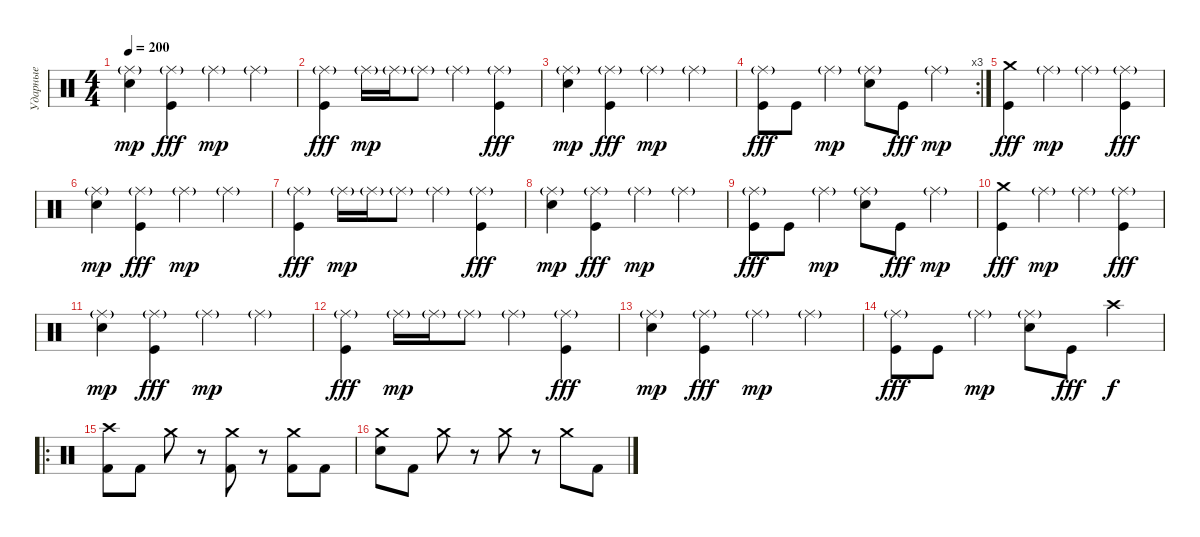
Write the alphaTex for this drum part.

\track ("Ударные" "Ударные") {instrument percussion}
\staff {score}
\articulation defaults
\ts (4 4)
\tempo 200
\clef neutral
\ks c
("Ride (middle)"{g} "Electric Snare (hit)").4{dy mp} ("Ride (middle)"{g} "Kick (hit)").4{dy fff} "Ride (middle)"{g}.4{dy mp} "Ride (middle)"{g}.4 |
("Ride (middle)"{g} "Kick (hit)").4{dy fff} "Ride (middle)"{g}.16{dy mp} "Ride (middle)"{g}.16 "Ride (middle)"{g}.8 "Ride (middle)"{g}.4 ("Ride (middle)"{g} "Kick (hit)").4{dy fff} |
("Ride (middle)"{g} "Electric Snare (hit)").4{dy mp} ("Ride (middle)"{g} "Kick (hit)").4{dy fff} "Ride (middle)"{g}.4{dy mp} "Ride (middle)"{g}.4 |
\rc 3
("Ride (middle)"{g} "Kick (hit)").8{dy fff} "Kick (hit)".8 "Ride (middle)"{g}.4{dy mp} ("Ride (middle)"{g} "Electric Snare (hit)").8 "Kick (hit)".8{dy fff} "Ride (middle)"{g}.4{dy mp} |
("Crash medium (hit)" "Kick (hit)").4{dy fff volume 13} "Ride (middle)"{g}.4{dy mp} "Ride (middle)"{g}.4 ("Ride (middle)"{g} "Kick (hit)").4{dy fff} |
("Ride (middle)"{g} "Electric Snare (hit)").4{dy mp} ("Ride (middle)"{g} "Kick (hit)").4{dy fff} "Ride (middle)"{g}.4{dy mp} "Ride (middle)"{g}.4 |
("Ride (middle)"{g} "Kick (hit)").4{dy fff} "Ride (middle)"{g}.16{dy mp} "Ride (middle)"{g}.16 "Ride (middle)"{g}.8 "Ride (middle)"{g}.4 ("Ride (middle)"{g} "Kick (hit)").4{dy fff} |
("Ride (middle)"{g} "Electric Snare (hit)").4{dy mp} ("Ride (middle)"{g} "Kick (hit)").4{dy fff} "Ride (middle)"{g}.4{dy mp} "Ride (middle)"{g}.4 |
("Ride (middle)"{g} "Kick (hit)").8{dy fff} "Kick (hit)".8 "Ride (middle)"{g}.4{dy mp} ("Ride (middle)"{g} "Electric Snare (hit)").8 "Kick (hit)".8{dy fff} "Ride (middle)"{g}.4{dy mp} |
("Crash medium (hit)" "Kick (hit)").4{dy fff} "Ride (middle)"{g}.4{dy mp} "Ride (middle)"{g}.4 ("Ride (middle)"{g} "Kick (hit)").4{dy fff} |
("Ride (middle)"{g} "Electric Snare (hit)").4{dy mp} ("Ride (middle)"{g} "Kick (hit)").4{dy fff} "Ride (middle)"{g}.4{dy mp} "Ride (middle)"{g}.4 |
("Ride (middle)"{g} "Kick (hit)").4{dy fff} "Ride (middle)"{g}.16{dy mp} "Ride (middle)"{g}.16 "Ride (middle)"{g}.8 "Ride (middle)"{g}.4 ("Ride (middle)"{g} "Kick (hit)").4{dy fff} |
("Ride (middle)"{g} "Electric Snare (hit)").4{dy mp} ("Ride (middle)"{g} "Kick (hit)").4{dy fff} "Ride (middle)"{g}.4{dy mp} "Ride (middle)"{g}.4 |
("Ride (middle)"{g} "Kick (hit)").8{dy fff} "Kick (hit)".8 "Ride (middle)"{g}.4{dy mp} ("Ride (middle)"{g} "Electric Snare (hit)").8 "Kick (hit)".8{dy fff} "Crash high (hit)".4{dy f} |
\ro
("Crash high (hit)" "Kick (hit) 2").8 "Kick (hit) 2".8 "Crash medium (hit)".8 r.8 ("Crash medium (hit)" "Kick (hit) 2").8 r.8 ("Crash medium (hit)" "Kick (hit) 2").8 "Kick (hit) 2".8 |
("Crash medium (hit)" "Electric Snare (hit)").8 "Kick (hit) 2".8 "Crash medium (hit)".8 r.8 "Crash medium (hit)".8 r.8 "Crash medium (hit)".8 "Kick (hit) 2".8
